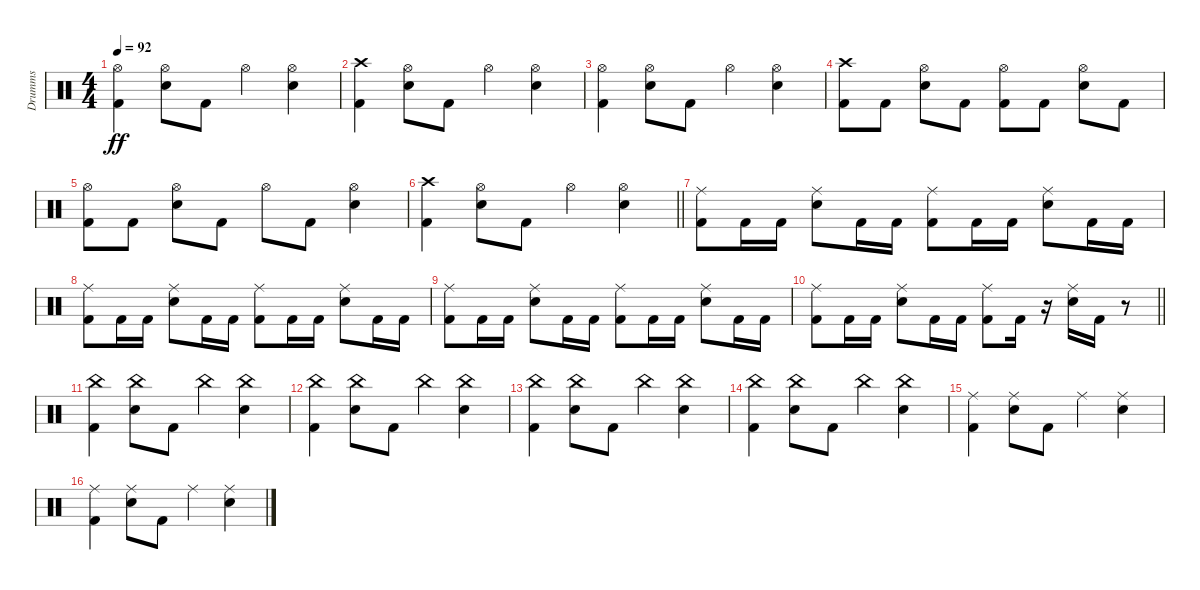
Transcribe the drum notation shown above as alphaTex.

\track ("Drumms" "Drumms") {instrument percussion}
\staff {score}
\articulation defaults
\ts (4 4)
\tempo 92
\clef neutral
\ks c
("Hi-Hat (open)" "Kick (hit) 2").4{dy ff} ("Hi-Hat (open)" "Electric Snare (hit)").8 "Kick (hit) 2".8 "Hi-Hat (open)".4 ("Hi-Hat (open)" "Electric Snare (hit)").4 |
("Crash high (hit)" "Kick (hit) 2").4 ("Hi-Hat (open)" "Electric Snare (hit)").8 "Kick (hit) 2".8 "Hi-Hat (open)".4 ("Hi-Hat (open)" "Electric Snare (hit)").4 |
("Hi-Hat (open)" "Kick (hit) 2").4 ("Hi-Hat (open)" "Electric Snare (hit)").8 "Kick (hit) 2".8 "Hi-Hat (open)".4 ("Hi-Hat (open)" "Electric Snare (hit)").4 |
("Crash high (hit)" "Kick (hit) 2").8 "Kick (hit) 2".8 ("Hi-Hat (open)" "Electric Snare (hit)").8 "Kick (hit) 2".8 ("Hi-Hat (open)" "Kick (hit) 2").8 "Kick (hit) 2".8 ("Hi-Hat (open)" "Electric Snare (hit)").8 "Kick (hit) 2".8 |
("Hi-Hat (open)" "Kick (hit) 2").8 "Kick (hit) 2".8 ("Hi-Hat (open)" "Electric Snare (hit)").8 "Kick (hit) 2".8 "Hi-Hat (open)".8 "Kick (hit) 2".8 ("Hi-Hat (open)" "Electric Snare (hit)").4 |
\barLineRight lightlight
("Crash high (hit)" "Kick (hit) 2").4 ("Hi-Hat (open)" "Electric Snare (hit)").8 "Kick (hit) 2".8 "Hi-Hat (open)".4 ("Hi-Hat (open)" "Electric Snare (hit)").4 |
("Ride (middle)" "Kick (hit) 2").8 "Kick (hit) 2".16 "Kick (hit) 2".16 ("Ride (middle)" "Electric Snare (hit)").8 "Kick (hit) 2".16 "Kick (hit) 2".16 ("Ride (middle)" "Kick (hit) 2").8 "Kick (hit) 2".16 "Kick (hit) 2".16 ("Ride (middle)" "Electric Snare (hit)").8 "Kick (hit) 2".16 "Kick (hit) 2".16 |
("Ride (middle)" "Kick (hit) 2").8 "Kick (hit) 2".16 "Kick (hit) 2".16 ("Ride (middle)" "Electric Snare (hit)").8 "Kick (hit) 2".16 "Kick (hit) 2".16 ("Ride (middle)" "Kick (hit) 2").8 "Kick (hit) 2".16 "Kick (hit) 2".16 ("Ride (middle)" "Electric Snare (hit)").8 "Kick (hit) 2".16 "Kick (hit) 2".16 |
("Ride (middle)" "Kick (hit) 2").8 "Kick (hit) 2".16 "Kick (hit) 2".16 ("Ride (middle)" "Electric Snare (hit)").8 "Kick (hit) 2".16 "Kick (hit) 2".16 ("Ride (middle)" "Kick (hit) 2").8 "Kick (hit) 2".16 "Kick (hit) 2".16 ("Ride (middle)" "Electric Snare (hit)").8 "Kick (hit) 2".16 "Kick (hit) 2".16 |
\barLineRight lightlight
("Ride (middle)" "Kick (hit) 2").8 "Kick (hit) 2".16 "Kick (hit) 2".16 ("Ride (middle)" "Electric Snare (hit)").8 "Kick (hit) 2".16 "Kick (hit) 2".16 ("Ride (middle)" "Kick (hit) 2").8 "Kick (hit) 2".16 r.16 ("Ride (middle)" "Electric Snare (hit)").16 "Kick (hit) 2".16 r.8 |
("China (hit)" "Kick (hit) 2").4 ("China (hit)" "Electric Snare (hit)").8 "Kick (hit) 2".8 "China (hit)".4 ("China (hit)" "Electric Snare (hit)").4 |
("China (hit)" "Kick (hit) 2").4 ("China (hit)" "Electric Snare (hit)").8 "Kick (hit) 2".8 "China (hit)".4 ("China (hit)" "Electric Snare (hit)").4 |
("China (hit)" "Kick (hit) 2").4 ("China (hit)" "Electric Snare (hit)").8 "Kick (hit) 2".8 "China (hit)".4 ("China (hit)" "Electric Snare (hit)").4 |
("China (hit)" "Kick (hit) 2").4 ("China (hit)" "Electric Snare (hit)").8 "Kick (hit) 2".8 "China (hit)".4 ("China (hit)" "Electric Snare (hit)").4 |
("Ride (middle)" "Kick (hit) 2").4 ("Ride (middle)" "Electric Snare (hit)").8 "Kick (hit) 2".8 "Ride (middle)".4 ("Ride (middle)" "Electric Snare (hit)").4 |
("Ride (middle)" "Kick (hit) 2").4 ("Ride (middle)" "Electric Snare (hit)").8 "Kick (hit) 2".8 "Ride (middle)".4 ("Ride (middle)" "Electric Snare (hit)").4
